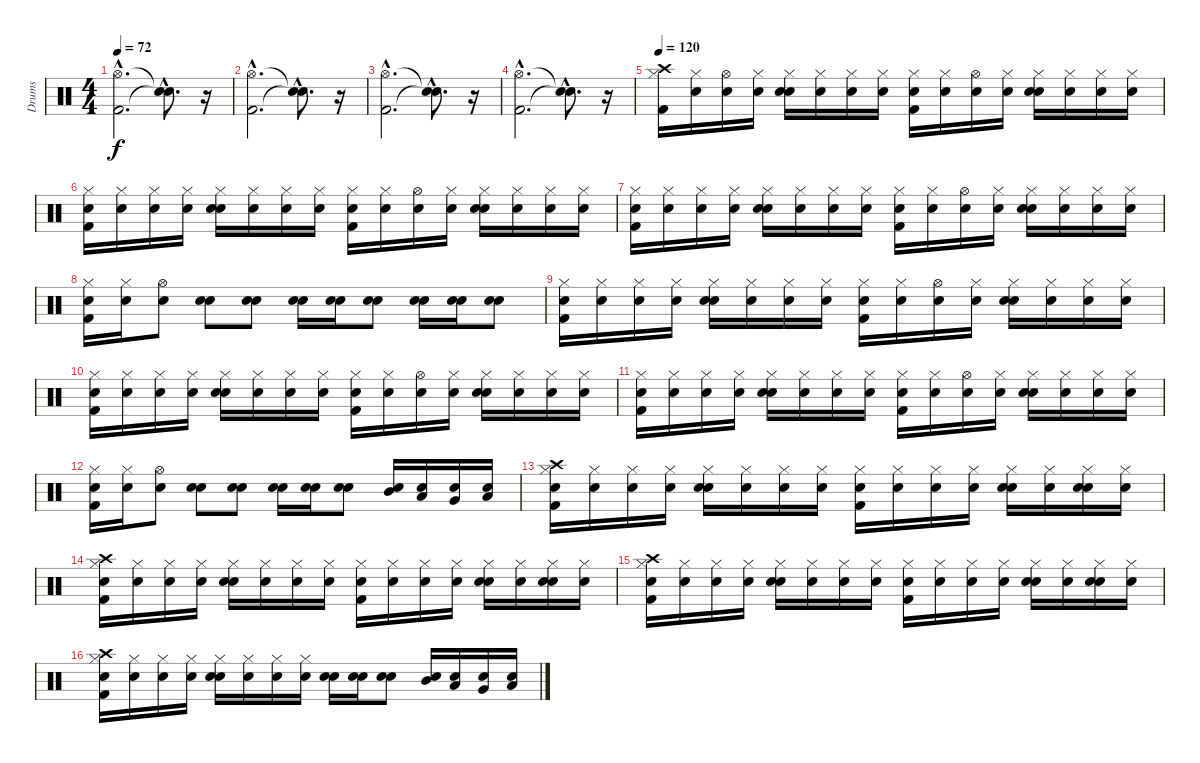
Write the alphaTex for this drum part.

\track ("Drums" "Drums") {instrument percussion}
\staff {score}
\articulation defaults
\ts (4 4)
\tempo 72
\clef neutral
\ks c
("Kick (hit) 2"{hac} "Hi-Hat (open)"{hac}).2{d dy f} ("Snare (hit)"{hac t} "Snare (hit)"{hac t}).8{d} r.16 |
("Kick (hit) 2"{hac} "Hi-Hat (open)"{hac}).2{d} ("Snare (hit)"{hac t} "Snare (hit)"{hac t}).8{d} r.16 |
("Kick (hit) 2"{hac} "Hi-Hat (open)"{hac}).2{d} ("Snare (hit)"{hac t} "Snare (hit)"{hac t}).8{d} r.16 |
("Kick (hit) 2"{hac} "Hi-Hat (open)"{hac}).2{d} ("Snare (hit)"{hac t} "Snare (hit)"{hac t}).8{d} r.16 |
\tempo 120
("Kick (hit) 2" "Hi-Hat (closed)" "Crash high (hit)").16 ("Snare (hit)" "Hi-Hat (closed)").16 ("Snare (hit)" "Hi-Hat (open)").16 ("Snare (hit)" "Hi-Hat (closed)").16 ("Snare (hit)" "Snare (hit) 2" "Hi-Hat (closed)").16 ("Snare (hit)" "Hi-Hat (closed)").16 ("Snare (hit)" "Hi-Hat (closed)").16 ("Snare (hit)" "Hi-Hat (closed)").16 ("Snare (hit)" "Kick (hit) 2" "Hi-Hat (closed)").16 ("Snare (hit)" "Hi-Hat (closed)").16 ("Snare (hit)" "Hi-Hat (open)").16 ("Snare (hit)" "Hi-Hat (closed)").16 ("Snare (hit)" "Snare (hit) 2" "Hi-Hat (closed)").16 ("Snare (hit)" "Hi-Hat (closed)").16 ("Snare (hit)" "Hi-Hat (closed)").16 ("Snare (hit)" "Hi-Hat (closed)").16 |
("Snare (hit)" "Kick (hit) 2" "Hi-Hat (closed)").16 ("Snare (hit)" "Hi-Hat (closed)").16 ("Snare (hit)" "Hi-Hat (closed)").16 ("Snare (hit)" "Hi-Hat (closed)").16 ("Snare (hit)" "Snare (hit) 2" "Hi-Hat (closed)").16 ("Snare (hit)" "Hi-Hat (closed)").16 ("Snare (hit)" "Hi-Hat (closed)").16 ("Snare (hit)" "Hi-Hat (closed)").16 ("Snare (hit)" "Kick (hit) 2" "Hi-Hat (closed)").16 ("Snare (hit)" "Hi-Hat (closed)").16 ("Snare (hit)" "Hi-Hat (open)").16 ("Snare (hit)" "Hi-Hat (closed)").16 ("Snare (hit)" "Snare (hit) 2" "Hi-Hat (closed)").16 ("Snare (hit)" "Hi-Hat (closed)").16 ("Snare (hit)" "Hi-Hat (closed)").16 ("Snare (hit)" "Hi-Hat (closed)").16 |
("Snare (hit)" "Kick (hit) 2" "Hi-Hat (closed)").16 ("Snare (hit)" "Hi-Hat (closed)").16 ("Snare (hit)" "Hi-Hat (closed)").16 ("Snare (hit)" "Hi-Hat (closed)").16 ("Snare (hit)" "Snare (hit) 2" "Hi-Hat (closed)").16 ("Snare (hit)" "Hi-Hat (closed)").16 ("Snare (hit)" "Hi-Hat (closed)").16 ("Snare (hit)" "Hi-Hat (closed)").16 ("Snare (hit)" "Kick (hit) 2" "Hi-Hat (closed)").16 ("Snare (hit)" "Hi-Hat (closed)").16 ("Snare (hit)" "Hi-Hat (open)").16 ("Snare (hit)" "Hi-Hat (closed)").16 ("Snare (hit)" "Snare (hit) 2" "Hi-Hat (closed)").16 ("Snare (hit)" "Hi-Hat (closed)").16 ("Snare (hit)" "Hi-Hat (closed)").16 ("Snare (hit)" "Hi-Hat (closed)").16 |
("Snare (hit)" "Kick (hit) 2" "Hi-Hat (closed)").16 ("Snare (hit)" "Hi-Hat (closed)").16 ("Snare (hit)" "Hi-Hat (open)").8 ("Snare (hit)" "Snare (hit) 2").8 ("Snare (hit)" "Snare (hit) 2").8 ("Snare (hit)" "Snare (hit) 2").16 ("Snare (hit)" "Snare (hit) 2").16 ("Snare (hit)" "Snare (hit) 2").8 ("Snare (hit)" "Snare (hit) 2").16 ("Snare (hit)" "Snare (hit) 2").16 ("Snare (hit)" "Snare (hit) 2").8 |
("Snare (hit)" "Kick (hit) 2" "Hi-Hat (closed)").16 ("Snare (hit)" "Hi-Hat (closed)").16 ("Snare (hit)" "Hi-Hat (closed)").16 ("Snare (hit)" "Hi-Hat (closed)").16 ("Snare (hit)" "Snare (hit) 2" "Hi-Hat (closed)").16 ("Snare (hit)" "Hi-Hat (closed)").16 ("Snare (hit)" "Hi-Hat (closed)").16 ("Snare (hit)" "Hi-Hat (closed)").16 ("Snare (hit)" "Kick (hit) 2" "Hi-Hat (closed)").16 ("Snare (hit)" "Hi-Hat (closed)").16 ("Snare (hit)" "Hi-Hat (open)").16 ("Snare (hit)" "Hi-Hat (closed)").16 ("Snare (hit)" "Snare (hit) 2" "Hi-Hat (closed)").16 ("Snare (hit)" "Hi-Hat (closed)").16 ("Snare (hit)" "Hi-Hat (closed)").16 ("Snare (hit)" "Hi-Hat (closed)").16 |
("Snare (hit)" "Kick (hit) 2" "Hi-Hat (closed)").16 ("Snare (hit)" "Hi-Hat (closed)").16 ("Snare (hit)" "Hi-Hat (closed)").16 ("Snare (hit)" "Hi-Hat (closed)").16 ("Snare (hit)" "Snare (hit) 2" "Hi-Hat (closed)").16 ("Snare (hit)" "Hi-Hat (closed)").16 ("Snare (hit)" "Hi-Hat (closed)").16 ("Snare (hit)" "Hi-Hat (closed)").16 ("Snare (hit)" "Kick (hit) 2" "Hi-Hat (closed)").16 ("Snare (hit)" "Hi-Hat (closed)").16 ("Snare (hit)" "Hi-Hat (open)").16 ("Snare (hit)" "Hi-Hat (closed)").16 ("Snare (hit)" "Snare (hit) 2" "Hi-Hat (closed)").16 ("Snare (hit)" "Hi-Hat (closed)").16 ("Snare (hit)" "Hi-Hat (closed)").16 ("Snare (hit)" "Hi-Hat (closed)").16 |
("Snare (hit)" "Kick (hit) 2" "Hi-Hat (closed)").16 ("Snare (hit)" "Hi-Hat (closed)").16 ("Snare (hit)" "Hi-Hat (closed)").16 ("Snare (hit)" "Hi-Hat (closed)").16 ("Snare (hit)" "Snare (hit) 2" "Hi-Hat (closed)").16 ("Snare (hit)" "Hi-Hat (closed)").16 ("Snare (hit)" "Hi-Hat (closed)").16 ("Snare (hit)" "Hi-Hat (closed)").16 ("Snare (hit)" "Kick (hit) 2" "Hi-Hat (closed)").16 ("Snare (hit)" "Hi-Hat (closed)").16 ("Snare (hit)" "Hi-Hat (open)").16 ("Snare (hit)" "Hi-Hat (closed)").16 ("Snare (hit)" "Snare (hit) 2" "Hi-Hat (closed)").16 ("Snare (hit)" "Hi-Hat (closed)").16 ("Snare (hit)" "Hi-Hat (closed)").16 ("Snare (hit)" "Hi-Hat (closed)").16 |
("Snare (hit)" "Kick (hit) 2" "Hi-Hat (closed)").16 ("Snare (hit)" "Hi-Hat (closed)").16 ("Snare (hit)" "Hi-Hat (open)").8 ("Snare (hit)" "Snare (hit) 2").8 ("Snare (hit)" "Snare (hit) 2").8 ("Snare (hit)" "Snare (hit) 2").16 ("Snare (hit)" "Snare (hit) 2").16 ("Snare (hit)" "Snare (hit) 2").8 ("Snare (hit)" "Mid Tom (hit)").16 ("Snare (hit)" "Low Tom (hit)").16 ("Snare (hit)" "Very Low Tom (hit)").16 ("Snare (hit)" "Low Floor Tom (hit)").16 |
("Snare (hit)" "Kick (hit) 2" "Hi-Hat (closed)" "Crash high (hit)").16 ("Snare (hit)" "Hi-Hat (closed)").16 ("Snare (hit)" "Hi-Hat (closed)").16 ("Snare (hit)" "Hi-Hat (closed)").16 ("Snare (hit)" "Snare (hit) 2" "Hi-Hat (closed)").16 ("Snare (hit)" "Hi-Hat (closed)").16 ("Snare (hit)" "Hi-Hat (closed)").16 ("Snare (hit)" "Hi-Hat (closed)").16 ("Snare (hit)" "Kick (hit) 2" "Hi-Hat (closed)").16 ("Snare (hit)" "Hi-Hat (closed)").16 ("Snare (hit)" "Hi-Hat (closed)").16 ("Snare (hit)" "Hi-Hat (closed)").16 ("Snare (hit)" "Snare (hit) 2" "Hi-Hat (closed)").16 ("Snare (hit)" "Hi-Hat (closed)").16 ("Snare (hit)" "Snare (hit) 2" "Hi-Hat (closed)").16 ("Snare (hit)" "Hi-Hat (closed)").16 |
("Snare (hit)" "Kick (hit) 2" "Hi-Hat (closed)" "Crash high (hit)").16 ("Snare (hit)" "Hi-Hat (closed)").16 ("Snare (hit)" "Hi-Hat (closed)").16 ("Snare (hit)" "Hi-Hat (closed)").16 ("Snare (hit)" "Snare (hit) 2" "Hi-Hat (closed)").16 ("Snare (hit)" "Hi-Hat (closed)").16 ("Snare (hit)" "Hi-Hat (closed)").16 ("Snare (hit)" "Hi-Hat (closed)").16 ("Snare (hit)" "Kick (hit) 2" "Hi-Hat (closed)").16 ("Snare (hit)" "Hi-Hat (closed)").16 ("Snare (hit)" "Hi-Hat (closed)").16 ("Snare (hit)" "Hi-Hat (closed)").16 ("Snare (hit)" "Snare (hit) 2" "Hi-Hat (closed)").16 ("Snare (hit)" "Hi-Hat (closed)").16 ("Snare (hit)" "Snare (hit) 2" "Hi-Hat (closed)").16 ("Snare (hit)" "Hi-Hat (closed)").16 |
("Snare (hit)" "Kick (hit) 2" "Hi-Hat (closed)" "Crash high (hit)").16 ("Snare (hit)" "Hi-Hat (closed)").16 ("Snare (hit)" "Hi-Hat (closed)").16 ("Snare (hit)" "Hi-Hat (closed)").16 ("Snare (hit)" "Snare (hit) 2" "Hi-Hat (closed)").16 ("Snare (hit)" "Hi-Hat (closed)").16 ("Snare (hit)" "Hi-Hat (closed)").16 ("Snare (hit)" "Hi-Hat (closed)").16 ("Snare (hit)" "Kick (hit) 2" "Hi-Hat (closed)").16 ("Snare (hit)" "Hi-Hat (closed)").16 ("Snare (hit)" "Hi-Hat (closed)").16 ("Snare (hit)" "Hi-Hat (closed)").16 ("Snare (hit)" "Snare (hit) 2" "Hi-Hat (closed)").16 ("Snare (hit)" "Hi-Hat (closed)").16 ("Snare (hit)" "Snare (hit) 2" "Hi-Hat (closed)").16 ("Snare (hit)" "Hi-Hat (closed)").16 |
("Snare (hit)" "Kick (hit) 2" "Hi-Hat (closed)" "Crash high (hit)").16 ("Snare (hit)" "Hi-Hat (closed)").16 ("Snare (hit)" "Hi-Hat (closed)").16 ("Snare (hit)" "Hi-Hat (closed)").16 ("Snare (hit)" "Snare (hit) 2" "Hi-Hat (closed)").16 ("Snare (hit)" "Hi-Hat (closed)").16 ("Snare (hit)" "Hi-Hat (closed)").16 ("Snare (hit)" "Hi-Hat (closed)").16 ("Snare (hit)" "Snare (hit) 2").16 ("Snare (hit)" "Snare (hit) 2").16 ("Snare (hit)" "Snare (hit) 2").8 ("Snare (hit)" "Mid Tom (hit)").16 ("Snare (hit)" "Low Tom (hit)").16 ("Snare (hit)" "Very Low Tom (hit)").16 ("Snare (hit)" "Low Floor Tom (hit)").16
